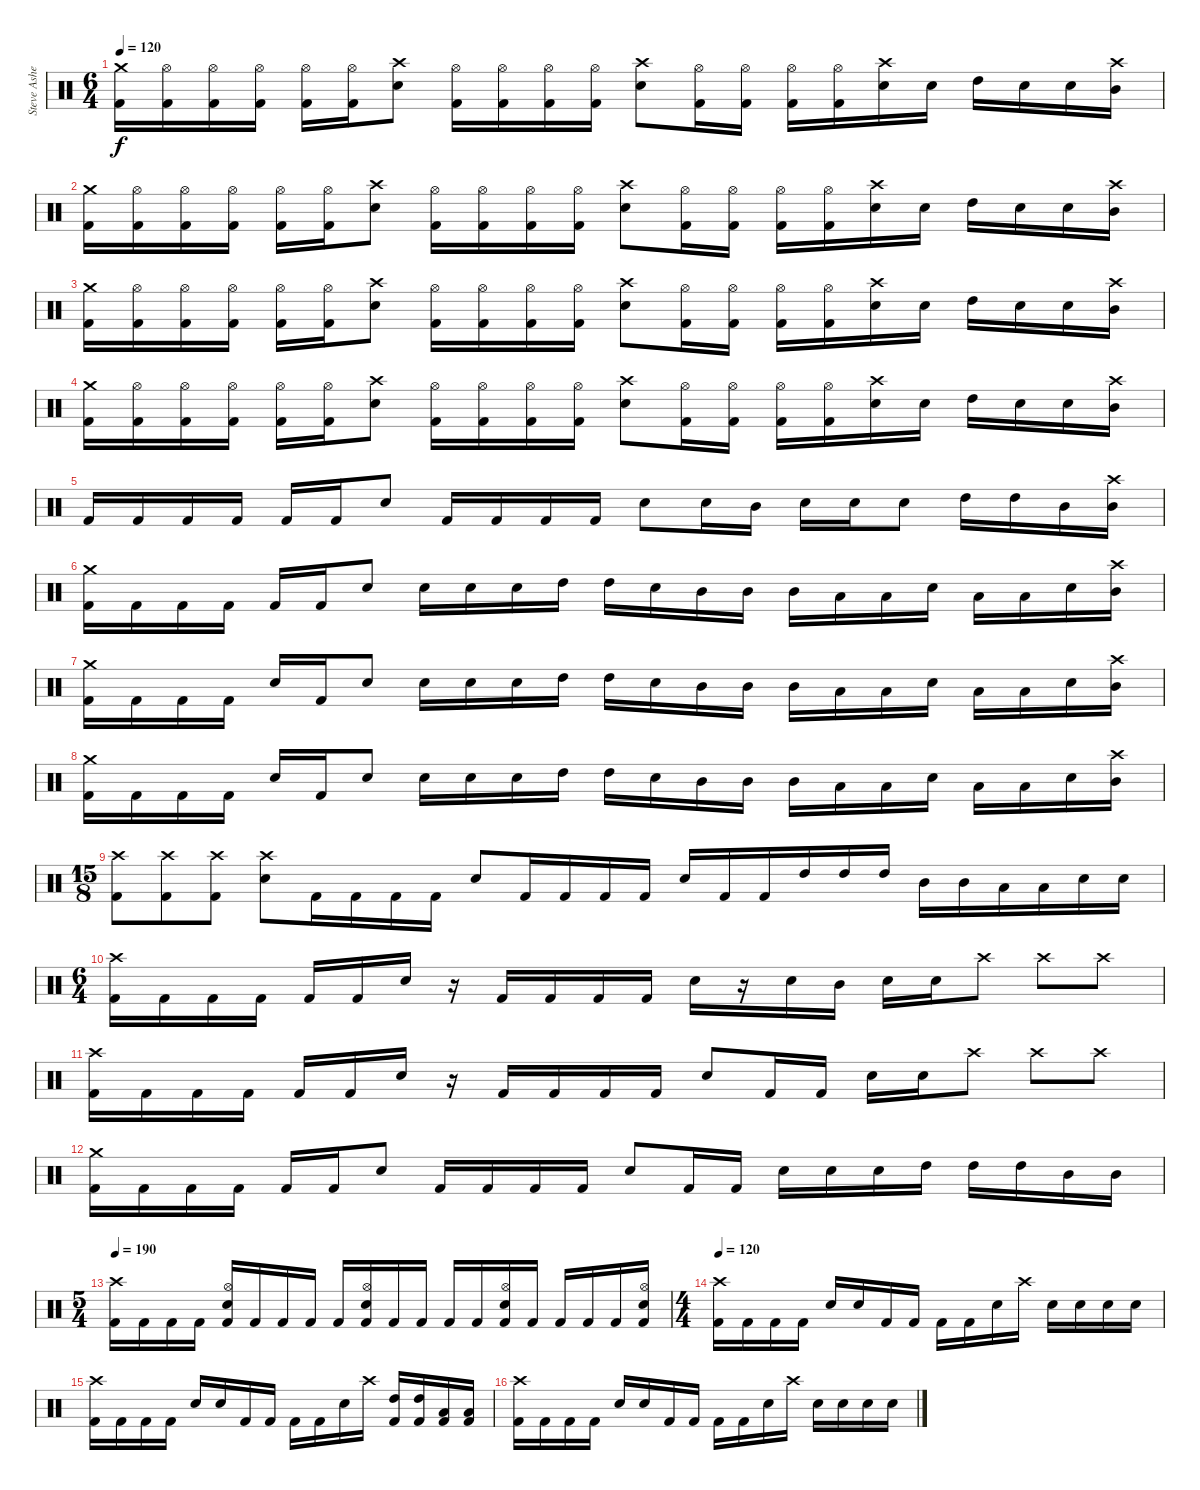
\track ("Steve Asheim" "Steve Ashe") {instrument percussion}
\staff {score}
\articulation defaults
\ts (6 4)
\tempo 120
\clef neutral
\ks c
("Crash medium (hit)" "Kick (hit) 2").16{dy f} ("Hi-Hat (open)" "Kick (hit) 2").16 ("Hi-Hat (open)" "Kick (hit) 2").16 ("Hi-Hat (open)" "Kick (hit) 2").16 ("Hi-Hat (open)" "Kick (hit) 2").16 ("Hi-Hat (open)" "Kick (hit) 2").16 ("Crash high (hit)" "Electric Snare (hit)").8 ("Hi-Hat (open)" "Kick (hit) 2").16 ("Hi-Hat (open)" "Kick (hit) 2").16 ("Hi-Hat (open)" "Kick (hit) 2").16 ("Hi-Hat (open)" "Kick (hit) 2").16 ("Crash high (hit)" "Electric Snare (hit)").8 ("Hi-Hat (open)" "Kick (hit) 2").16 ("Hi-Hat (open)" "Kick (hit) 2").16 ("Hi-Hat (open)" "Kick (hit) 2").16 ("Hi-Hat (open)" "Kick (hit) 2").16 ("Crash high (hit)" "Electric Snare (hit)").16 "Snare (hit) 2".16 "High Tom (hit)".16 "Snare (hit) 2".16 "Snare (hit) 2".16 ("Crash high (hit)" "Mid Tom (hit)").16 |
("Crash medium (hit)" "Kick (hit) 2").16 ("Hi-Hat (open)" "Kick (hit) 2").16 ("Hi-Hat (open)" "Kick (hit) 2").16 ("Hi-Hat (open)" "Kick (hit) 2").16 ("Hi-Hat (open)" "Kick (hit) 2").16 ("Hi-Hat (open)" "Kick (hit) 2").16 ("Crash high (hit)" "Electric Snare (hit)").8 ("Hi-Hat (open)" "Kick (hit) 2").16 ("Hi-Hat (open)" "Kick (hit) 2").16 ("Hi-Hat (open)" "Kick (hit) 2").16 ("Hi-Hat (open)" "Kick (hit) 2").16 ("Crash high (hit)" "Electric Snare (hit)").8 ("Hi-Hat (open)" "Kick (hit) 2").16 ("Hi-Hat (open)" "Kick (hit) 2").16 ("Hi-Hat (open)" "Kick (hit) 2").16 ("Hi-Hat (open)" "Kick (hit) 2").16 ("Crash high (hit)" "Electric Snare (hit)").16 "Snare (hit) 2".16 "High Tom (hit)".16 "Snare (hit) 2".16 "Snare (hit) 2".16 ("Crash high (hit)" "Mid Tom (hit)").16 |
("Crash medium (hit)" "Kick (hit) 2").16 ("Hi-Hat (open)" "Kick (hit) 2").16 ("Hi-Hat (open)" "Kick (hit) 2").16 ("Hi-Hat (open)" "Kick (hit) 2").16 ("Hi-Hat (open)" "Kick (hit) 2").16 ("Hi-Hat (open)" "Kick (hit) 2").16 ("Crash high (hit)" "Electric Snare (hit)").8 ("Hi-Hat (open)" "Kick (hit) 2").16 ("Hi-Hat (open)" "Kick (hit) 2").16 ("Hi-Hat (open)" "Kick (hit) 2").16 ("Hi-Hat (open)" "Kick (hit) 2").16 ("Crash high (hit)" "Electric Snare (hit)").8 ("Hi-Hat (open)" "Kick (hit) 2").16 ("Hi-Hat (open)" "Kick (hit) 2").16 ("Hi-Hat (open)" "Kick (hit) 2").16 ("Hi-Hat (open)" "Kick (hit) 2").16 ("Crash high (hit)" "Electric Snare (hit)").16 "Snare (hit) 2".16 "High Tom (hit)".16 "Snare (hit) 2".16 "Snare (hit) 2".16 ("Crash high (hit)" "Mid Tom (hit)").16 |
("Crash medium (hit)" "Kick (hit) 2").16 ("Hi-Hat (open)" "Kick (hit) 2").16 ("Hi-Hat (open)" "Kick (hit) 2").16 ("Hi-Hat (open)" "Kick (hit) 2").16 ("Hi-Hat (open)" "Kick (hit) 2").16 ("Hi-Hat (open)" "Kick (hit) 2").16 ("Crash high (hit)" "Electric Snare (hit)").8 ("Hi-Hat (open)" "Kick (hit) 2").16 ("Hi-Hat (open)" "Kick (hit) 2").16 ("Hi-Hat (open)" "Kick (hit) 2").16 ("Hi-Hat (open)" "Kick (hit) 2").16 ("Crash high (hit)" "Electric Snare (hit)").8 ("Hi-Hat (open)" "Kick (hit) 2").16 ("Hi-Hat (open)" "Kick (hit) 2").16 ("Hi-Hat (open)" "Kick (hit) 2").16 ("Hi-Hat (open)" "Kick (hit) 2").16 ("Crash high (hit)" "Electric Snare (hit)").16 "Snare (hit) 2".16 "High Tom (hit)".16 "Snare (hit) 2".16 "Snare (hit) 2".16 ("Crash high (hit)" "Mid Tom (hit)").16 |
"Kick (hit) 2".16 "Kick (hit) 2".16 "Kick (hit) 2".16 "Kick (hit) 2".16 "Kick (hit) 2".16 "Kick (hit) 2".16 "Electric Snare (hit)".8 "Kick (hit) 2".16 "Kick (hit) 2".16 "Kick (hit) 2".16 "Kick (hit) 2".16 "Electric Snare (hit)".8 "Snare (hit) 2".16 "Mid Tom (hit)".16 "Snare (hit) 2".16 "Snare (hit) 2".16 "Electric Snare (hit)".8 "High Tom (hit)".16 "High Tom (hit)".16 "Mid Tom (hit)".16 ("Crash high (hit)" "Mid Tom (hit)").16 |
("Crash medium (hit)" "Kick (hit) 2").16 "Kick (hit) 2".16 "Kick (hit) 2".16 "Kick (hit) 2".16 "Kick (hit) 2".16 "Kick (hit) 2".16 "Electric Snare (hit)".8 "Snare (hit) 2".16 "Snare (hit) 2".16 "Snare (hit) 2".16 "High Tom (hit)".16 "High Tom (hit)".16 "Snare (hit) 2".16 "Mid Tom (hit)".16 "Mid Tom (hit)".16 "Mid Tom (hit)".16 "Low Tom (hit)".16 "Low Tom (hit)".16 "Snare (hit) 2".16 "Low Tom (hit)".16 "Low Tom (hit)".16 "Snare (hit) 2".16 ("Crash high (hit)" "Mid Tom (hit)").16 |
("Crash medium (hit)" "Kick (hit) 2").16 "Kick (hit) 2".16 "Kick (hit) 2".16 "Kick (hit) 2".16 "Electric Snare (hit)".16 "Kick (hit) 2".16 "Electric Snare (hit)".8 "Snare (hit) 2".16 "Snare (hit) 2".16 "Snare (hit) 2".16 "High Tom (hit)".16 "High Tom (hit)".16 "Snare (hit) 2".16 "Mid Tom (hit)".16 "Mid Tom (hit)".16 "Mid Tom (hit)".16 "Low Tom (hit)".16 "Low Tom (hit)".16 "Snare (hit) 2".16 "Low Tom (hit)".16 "Low Tom (hit)".16 "Snare (hit) 2".16 ("Crash high (hit)" "Mid Tom (hit)").16 |
("Crash medium (hit)" "Kick (hit) 2").16 "Kick (hit) 2".16 "Kick (hit) 2".16 "Kick (hit) 2".16 "Electric Snare (hit)".16 "Kick (hit) 2".16 "Electric Snare (hit)".8 "Snare (hit) 2".16 "Snare (hit) 2".16 "Snare (hit) 2".16 "High Tom (hit)".16 "High Tom (hit)".16 "Snare (hit) 2".16 "Mid Tom (hit)".16 "Mid Tom (hit)".16 "Mid Tom (hit)".16 "Low Tom (hit)".16 "Low Tom (hit)".16 "Snare (hit) 2".16 "Low Tom (hit)".16 "Low Tom (hit)".16 "Snare (hit) 2".16 ("Crash high (hit)" "Mid Tom (hit)").16 |
\ts (15 8)
("Crash high (hit)" "Kick (hit) 2").8 ("Crash high (hit)" "Kick (hit) 2").8 ("Crash high (hit)" "Kick (hit) 2").8 ("Crash high (hit)" "Electric Snare (hit)").8 "Kick (hit) 2".16 "Kick (hit) 2".16 "Kick (hit) 2".16 "Kick (hit) 2".16 "Electric Snare (hit)".8 "Kick (hit) 2".16 "Kick (hit) 2".16 "Kick (hit) 2".16 "Kick (hit) 2".16 "Electric Snare (hit)".16 "Kick (hit) 2".16 "Kick (hit) 2".16 "High Tom (hit)".16 "High Tom (hit)".16 "High Tom (hit)".16 "Mid Tom (hit)".16 "Mid Tom (hit)".16 "Low Tom (hit)".16 "Low Tom (hit)".16 "Snare (hit) 2".16 "Snare (hit) 2".16 |
\ts (6 4)
("Crash high (hit)" "Kick (hit) 2").16 "Kick (hit) 2".16 "Kick (hit) 2".16 "Kick (hit) 2".16 "Kick (hit) 2".16 "Kick (hit) 2".16 "Electric Snare (hit)".16 r.16 "Kick (hit) 2".16 "Kick (hit) 2".16 "Kick (hit) 2".16 "Kick (hit) 2".16 "Electric Snare (hit)".16 r.16 "Snare (hit) 2".16 "Mid Tom (hit)".16 "Snare (hit) 2".16 "Snare (hit) 2".16 "Crash high (hit)".8 "Crash high (hit)".8 "Crash high (hit)".8 |
("Crash high (hit)" "Kick (hit) 2").16 "Kick (hit) 2".16 "Kick (hit) 2".16 "Kick (hit) 2".16 "Kick (hit) 2".16 "Kick (hit) 2".16 "Electric Snare (hit)".16 r.16 "Kick (hit) 2".16 "Kick (hit) 2".16 "Kick (hit) 2".16 "Kick (hit) 2".16 "Electric Snare (hit)".8 "Kick (hit) 2".16 "Kick (hit) 2".16 "Snare (hit) 2".16 "Snare (hit) 2".16 "Crash high (hit)".8 "Crash high (hit)".8 "Crash high (hit)".8 |
("Crash medium (hit)" "Kick (hit) 2").16 "Kick (hit) 2".16 "Kick (hit) 2".16 "Kick (hit) 2".16 "Kick (hit) 2".16 "Kick (hit) 2".16 "Electric Snare (hit)".8 "Kick (hit) 2".16 "Kick (hit) 2".16 "Kick (hit) 2".16 "Kick (hit) 2".16 "Electric Snare (hit)".8 "Kick (hit) 2".16 "Kick (hit) 2".16 "Snare (hit) 2".16 "Snare (hit) 2".16 "Snare (hit) 2".16 "High Tom (hit)".16 "High Tom (hit)".16 "High Tom (hit)".16 "Mid Tom (hit)".16 "Mid Tom (hit)".16 |
\ts (5 4)
\tempo 190
("Crash high (hit)" "Kick (hit) 2").16 "Kick (hit) 2".16 "Kick (hit) 2".16 "Kick (hit) 2".16 ("Hi-Hat (open)" "Electric Snare (hit)" "Kick (hit) 2").16 "Kick (hit) 2".16 "Kick (hit) 2".16 "Kick (hit) 2".16 "Kick (hit) 2".16 ("Hi-Hat (open)" "Electric Snare (hit)" "Kick (hit) 2").16 "Kick (hit) 2".16 "Kick (hit) 2".16 "Kick (hit) 2".16 "Kick (hit) 2".16 ("Hi-Hat (open)" "Electric Snare (hit)" "Kick (hit) 2").16 "Kick (hit) 2".16 "Kick (hit) 2".16 "Kick (hit) 2".16 "Kick (hit) 2".16 ("Hi-Hat (open)" "Electric Snare (hit)" "Kick (hit) 2").16 |
\ts (4 4)
\tempo 120
("Crash high (hit)" "Kick (hit) 2").16 "Kick (hit) 2".16 "Kick (hit) 2".16 "Kick (hit) 2".16 "Electric Snare (hit)".16 "Electric Snare (hit)".16 "Kick (hit) 2".16 "Kick (hit) 2".16 "Kick (hit) 2".16 "Kick (hit) 2".16 "Electric Snare (hit)".16 "Crash high (hit)".16 "Snare (hit) 2".16 "Snare (hit) 2".16 "Snare (hit) 2".16 "Snare (hit) 2".16 |
("Crash high (hit)" "Kick (hit) 2").16 "Kick (hit) 2".16 "Kick (hit) 2".16 "Kick (hit) 2".16 "Electric Snare (hit)".16 "Electric Snare (hit)".16 "Kick (hit) 2".16 "Kick (hit) 2".16 "Kick (hit) 2".16 "Kick (hit) 2".16 "Electric Snare (hit)".16 "Crash high (hit)".16 ("High Tom (hit)" "Kick (hit) 2").16 ("High Tom (hit)" "Kick (hit) 2").16 ("Low Tom (hit)" "Kick (hit) 2").16 ("Low Tom (hit)" "Kick (hit) 2").16 |
("Crash high (hit)" "Kick (hit) 2").16 "Kick (hit) 2".16 "Kick (hit) 2".16 "Kick (hit) 2".16 "Electric Snare (hit)".16 "Electric Snare (hit)".16 "Kick (hit) 2".16 "Kick (hit) 2".16 "Kick (hit) 2".16 "Kick (hit) 2".16 "Electric Snare (hit)".16 "Crash high (hit)".16 "Snare (hit) 2".16 "Snare (hit) 2".16 "Snare (hit) 2".16 "Snare (hit) 2".16
